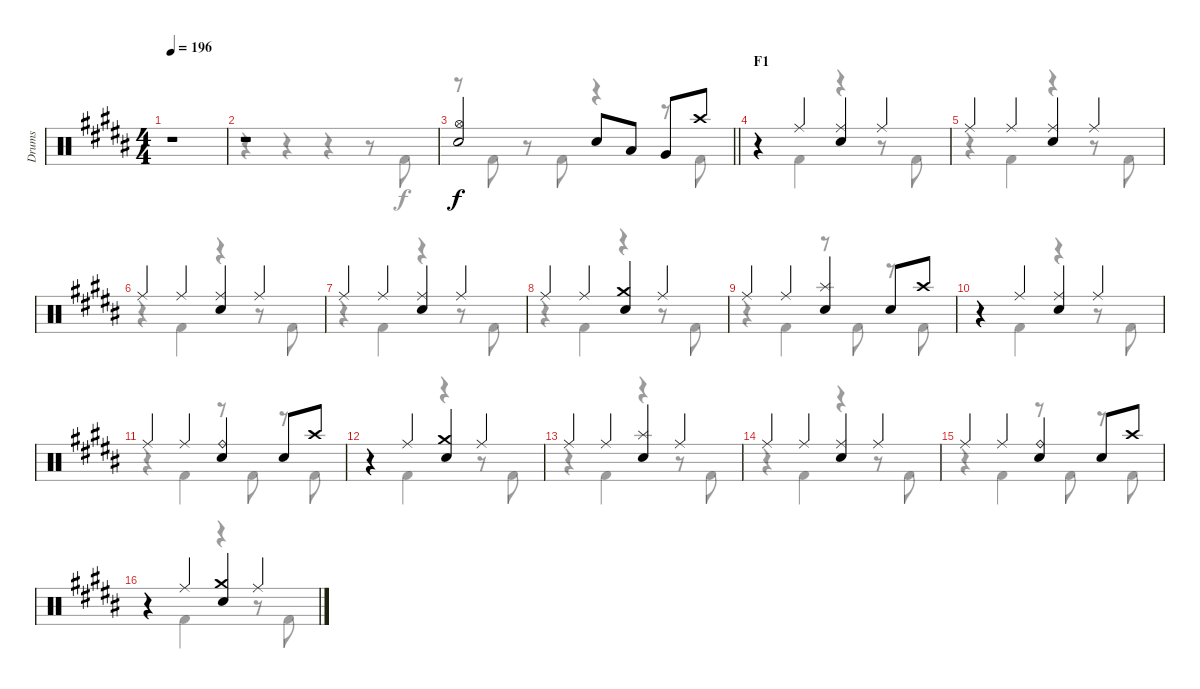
\track ("Drums" "Drums") {instrument percussion}
\staff {score}
\articulation defaults
\voice
\ts (4 4)
\tempo 196
\clef neutral
\ks b
r.1{dy f} |
r.1 |
\barLineRight lightlight
("Hi-Hat (open)" "Electric Snare (hit)").2 "Electric Snare (hit)".8 "Low Tom (hit)".8 "Very Low Tom (hit)".8 "Crash high (hit)".8 |
\section ("" "F1")
r.4 "Ride (middle)".4 ("Ride (middle)" "Electric Snare (hit)").4 "Ride (middle)".4 |
"Ride (middle)".4 "Ride (middle)".4 ("Ride (middle)" "Electric Snare (hit)").4 "Ride (middle)".4 |
"Ride (middle)".4 "Ride (middle)".4 ("Ride (middle)" "Electric Snare (hit)").4 "Ride (middle)".4 |
"Ride (middle)".4 "Ride (middle)".4 ("Ride (middle)" "Electric Snare (hit)").4 "Ride (middle)".4 |
"Ride (middle)".4 "Ride (middle)".4 ("Crash medium (hit)" "Electric Snare (hit)").4 "Ride (middle)".4 |
"Ride (middle)".4 "Ride (middle)".4 ("Splash (hit)" "Electric Snare (hit)").4 "Electric Snare (hit)".8 "Crash high (hit)".8 |
r.4 "Ride (middle)".4 ("Ride (middle)" "Electric Snare (hit)").4 "Ride (middle)".4 |
"Ride (middle)".4 "Ride (middle)".4 ("Ride (bell)" "Electric Snare (hit)").4 "Electric Snare (hit)".8 "Crash high (hit)".8 |
r.4 "Ride (middle)".4 ("Crash medium (hit)" "Electric Snare (hit)").4 "Ride (middle)".4 |
"Ride (middle)".4 "Ride (middle)".4 ("Splash (hit)" "Electric Snare (hit)").4 "Ride (middle)".4 |
"Ride (middle)".4 "Ride (middle)".4 ("Ride (middle)" "Electric Snare (hit)").4 "Ride (middle)".4 |
"Ride (middle)".4 "Ride (middle)".4 ("Ride (bell)" "Electric Snare (hit)").4 "Electric Snare (hit)".8 "Crash high (hit)".8 |
r.4 "Ride (middle)".4 ("Crash medium (hit)" "Electric Snare (hit)").4 "Ride (middle)".4
\voice
\clef neutral
\ottava regular
\simile none
\ks b
r.1{dy f} |
r.4 r.4 r.4 r.8 "Kick (hit) 2".8 |
\barLineRight lightlight
r.8 "Kick (hit) 2".8 r.8 "Kick (hit) 2".8 r.4 r.8 "Kick (hit) 2".8 |
r.4 "Kick (hit) 2".4 r.4 r.8 "Kick (hit) 2".8 |
r.4 "Kick (hit) 2".4 r.4 r.8 "Kick (hit) 2".8 |
r.4 "Kick (hit) 2".4 r.4 r.8 "Kick (hit) 2".8 |
r.4 "Kick (hit) 2".4 r.4 r.8 "Kick (hit) 2".8 |
r.4 "Kick (hit) 2".4 r.4 r.8 "Kick (hit) 2".8 |
r.4 "Kick (hit) 2".4 r.8 "Kick (hit) 2".8 r.8 "Kick (hit) 2".8 |
r.4 "Kick (hit) 2".4 r.4 r.8 "Kick (hit) 2".8 |
r.4 "Kick (hit) 2".4 r.8 "Kick (hit) 2".8 r.8 "Kick (hit) 2".8 |
r.4 "Kick (hit) 2".4 r.4 r.8 "Kick (hit) 2".8 |
r.4 "Kick (hit) 2".4 r.4 r.8 "Kick (hit) 2".8 |
r.4 "Kick (hit) 2".4 r.4 r.8 "Kick (hit) 2".8 |
r.4 "Kick (hit) 2".4 r.8 "Kick (hit) 2".8 r.8 "Kick (hit) 2".8 |
r.4 "Kick (hit) 2".4 r.4 r.8 "Kick (hit) 2".8
